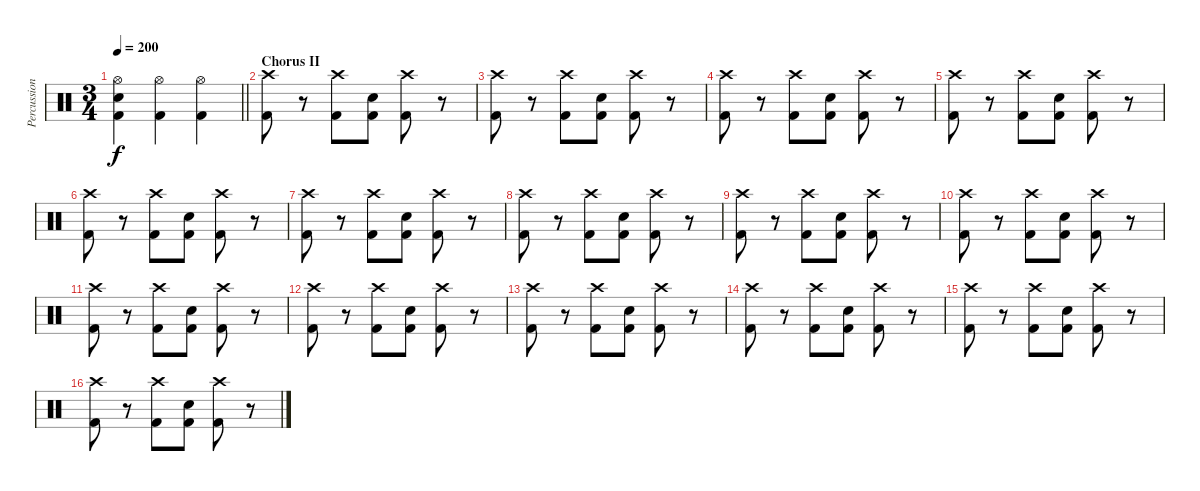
\track ("Percussion" "Percussion") {instrument percussion}
\staff {score}
\articulation defaults
\ts (3 4)
\tempo 200
\clef neutral
\barLineRight lightlight
\ks c
("Hi-Hat (open)" "Electric Snare (hit)" "Kick (hit) 2").4{dy f} ("Hi-Hat (open)" "Kick (hit) 2").4 ("Hi-Hat (open)" "Kick (hit) 2").4 |
\section ("" "Chorus II")
("Crash high (hit)" "Kick (hit) 2").8 r.8 ("Crash high (hit)" "Kick (hit) 2").8 ("Electric Snare (hit)" "Kick (hit) 2").8 ("Crash high (hit)" "Kick (hit) 2").8 r.8 |
("Crash high (hit)" "Kick (hit) 2").8 r.8 ("Crash high (hit)" "Kick (hit) 2").8 ("Electric Snare (hit)" "Kick (hit) 2").8 ("Crash high (hit)" "Kick (hit) 2").8 r.8 |
("Crash high (hit)" "Kick (hit) 2").8 r.8 ("Crash high (hit)" "Kick (hit) 2").8 ("Electric Snare (hit)" "Kick (hit) 2").8 ("Crash high (hit)" "Kick (hit) 2").8 r.8 |
("Crash high (hit)" "Kick (hit) 2").8 r.8 ("Crash high (hit)" "Kick (hit) 2").8 ("Electric Snare (hit)" "Kick (hit) 2").8 ("Crash high (hit)" "Kick (hit) 2").8 r.8 |
("Crash high (hit)" "Kick (hit) 2").8 r.8 ("Crash high (hit)" "Kick (hit) 2").8 ("Electric Snare (hit)" "Kick (hit) 2").8 ("Crash high (hit)" "Kick (hit) 2").8 r.8 |
("Crash high (hit)" "Kick (hit) 2").8 r.8 ("Crash high (hit)" "Kick (hit) 2").8 ("Electric Snare (hit)" "Kick (hit) 2").8 ("Crash high (hit)" "Kick (hit) 2").8 r.8 |
("Crash high (hit)" "Kick (hit) 2").8 r.8 ("Crash high (hit)" "Kick (hit) 2").8 ("Electric Snare (hit)" "Kick (hit) 2").8 ("Crash high (hit)" "Kick (hit) 2").8 r.8 |
("Crash high (hit)" "Kick (hit) 2").8 r.8 ("Crash high (hit)" "Kick (hit) 2").8 ("Electric Snare (hit)" "Kick (hit) 2").8 ("Crash high (hit)" "Kick (hit) 2").8 r.8 |
("Crash high (hit)" "Kick (hit) 2").8 r.8 ("Crash high (hit)" "Kick (hit) 2").8 ("Electric Snare (hit)" "Kick (hit) 2").8 ("Crash high (hit)" "Kick (hit) 2").8 r.8 |
("Crash high (hit)" "Kick (hit) 2").8 r.8 ("Crash high (hit)" "Kick (hit) 2").8 ("Electric Snare (hit)" "Kick (hit) 2").8 ("Crash high (hit)" "Kick (hit) 2").8 r.8 |
("Crash high (hit)" "Kick (hit) 2").8 r.8 ("Crash high (hit)" "Kick (hit) 2").8 ("Electric Snare (hit)" "Kick (hit) 2").8 ("Crash high (hit)" "Kick (hit) 2").8 r.8 |
("Crash high (hit)" "Kick (hit) 2").8 r.8 ("Crash high (hit)" "Kick (hit) 2").8 ("Electric Snare (hit)" "Kick (hit) 2").8 ("Crash high (hit)" "Kick (hit) 2").8 r.8 |
("Crash high (hit)" "Kick (hit) 2").8 r.8 ("Crash high (hit)" "Kick (hit) 2").8 ("Electric Snare (hit)" "Kick (hit) 2").8 ("Crash high (hit)" "Kick (hit) 2").8 r.8 |
("Crash high (hit)" "Kick (hit) 2").8 r.8 ("Crash high (hit)" "Kick (hit) 2").8 ("Electric Snare (hit)" "Kick (hit) 2").8 ("Crash high (hit)" "Kick (hit) 2").8 r.8 |
("Crash high (hit)" "Kick (hit) 2").8 r.8 ("Crash high (hit)" "Kick (hit) 2").8 ("Electric Snare (hit)" "Kick (hit) 2").8 ("Crash high (hit)" "Kick (hit) 2").8 r.8
